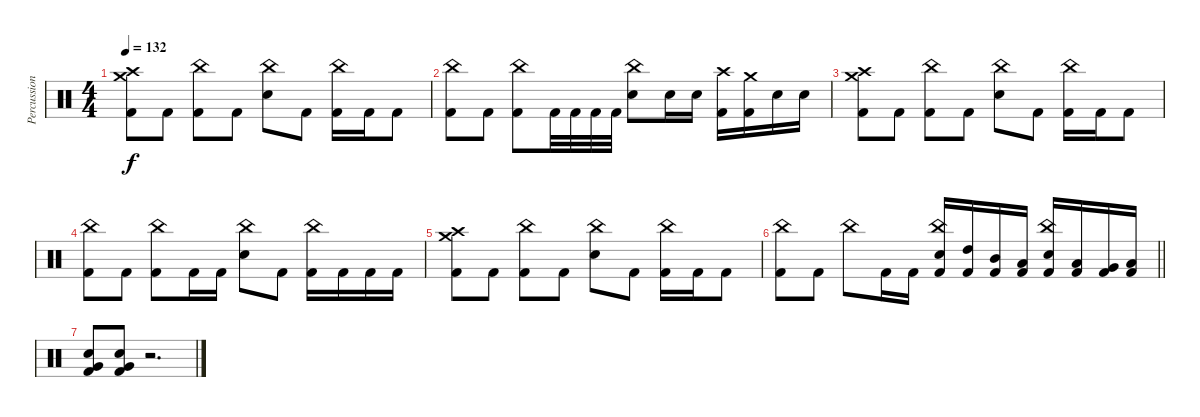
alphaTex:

\track ("Percussion" "Percussion") {instrument percussion}
\staff {score}
\articulation defaults
\ts (4 4)
\tempo 132
\clef neutral
\ks c
("Crash medium (hit)" "Crash high (hit)" "Kick (hit) 2").8{dy f} "Kick (hit) 2".8 ("China (hit)" "Kick (hit) 2").8 "Kick (hit) 2".8 ("China (hit)" "Electric Snare (hit)").8 "Kick (hit) 2".8 ("China (hit)" "Kick (hit) 2").16 "Kick (hit) 2".16 "Kick (hit) 2".8 |
("China (hit)" "Kick (hit) 2").8 "Kick (hit) 2".8 ("China (hit)" "Kick (hit) 2").8 "Kick (hit) 2".32 "Kick (hit) 2".32 "Kick (hit) 2".32 "Kick (hit) 2".32 ("China (hit)" "Electric Snare (hit)").8 "Electric Snare (hit)".16 "Electric Snare (hit)".16 ("Crash high (hit)" "Kick (hit) 2").16 ("Crash medium (hit)" "Kick (hit) 2").16 "Electric Snare (hit)".16 "Electric Snare (hit)".16 |
("Crash medium (hit)" "Crash high (hit)" "Kick (hit) 2").8 "Kick (hit) 2".8 ("China (hit)" "Kick (hit) 2").8 "Kick (hit) 2".8 ("China (hit)" "Electric Snare (hit)").8 "Kick (hit) 2".8 ("China (hit)" "Kick (hit) 2").16 "Kick (hit) 2".16 "Kick (hit) 2".8 |
("China (hit)" "Kick (hit) 2").8 "Kick (hit) 2".8 ("China (hit)" "Kick (hit) 2").8 "Kick (hit) 2".16 "Kick (hit) 2".16 ("China (hit)" "Electric Snare (hit)").8 "Kick (hit) 2".8 ("China (hit)" "Kick (hit) 2").16 "Kick (hit) 2".16 "Kick (hit) 2".16 "Kick (hit) 2".16 |
("Crash medium (hit)" "Crash high (hit)" "Kick (hit) 2").8 "Kick (hit) 2".8 ("China (hit)" "Kick (hit) 2").8 "Kick (hit) 2".8 ("China (hit)" "Electric Snare (hit)").8 "Kick (hit) 2".8 ("China (hit)" "Kick (hit) 2").16 "Kick (hit) 2".16 "Kick (hit) 2".8 |
\barLineRight lightlight
("China (hit)" "Kick (hit) 2").8 "Kick (hit) 2".8 "China (hit)".8 "Kick (hit) 2".16 "Kick (hit) 2".16 ("China (hit)" "Electric Snare (hit)" "Kick (hit) 2").16 ("High Tom (hit)" "Kick (hit) 2").16 ("Mid Tom (hit)" "Kick (hit) 2").16 ("Low Tom (hit)" "Kick (hit) 2").16 ("China (hit)" "Electric Snare (hit)" "Kick (hit) 2").16 ("Low Tom (hit)" "Kick (hit) 2").16 ("Very Low Tom (hit)" "Kick (hit) 2").16 ("Low Floor Tom (hit)" "Kick (hit) 2").16 |
("Very Low Tom (hit)" "Electric Snare (hit)" "Kick (hit) 2").8 ("Very Low Tom (hit)" "Electric Snare (hit)" "Kick (hit) 2").8 r.2{d}
